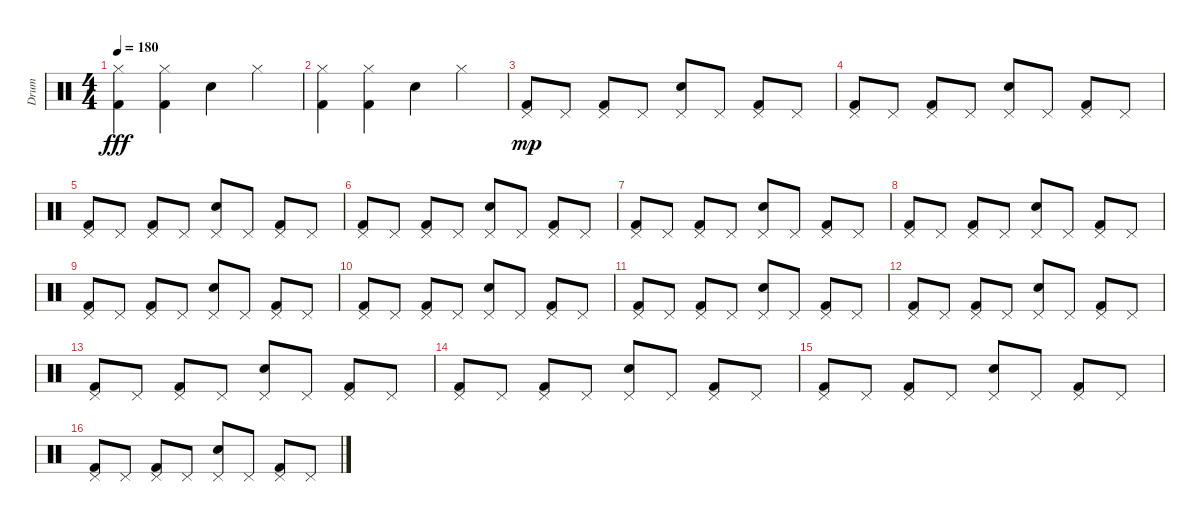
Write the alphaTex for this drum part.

\track ("Drum" "Drum") {instrument percussion}
\staff {score}
\articulation defaults
\ts (4 4)
\tempo 180
\clef neutral
\ks c
("Hi-Hat (closed)" "Kick (hit) 2").4{dy fff} ("Hi-Hat (closed)" "Kick (hit) 2").4 "Snare (hit) 2".4 "Hi-Hat (closed)".4 |
("Hi-Hat (closed)" "Kick (hit) 2").4 ("Hi-Hat (closed)" "Kick (hit) 2").4 "Snare (hit) 2".4 "Hi-Hat (closed)".4 |
("Pedal Hi-Hat (hit)" "Kick (hit) 2").8{dy mp} "Pedal Hi-Hat (hit)".8 ("Pedal Hi-Hat (hit)" "Kick (hit) 2").8 "Pedal Hi-Hat (hit)".8 ("Pedal Hi-Hat (hit)" "Snare (hit) 2").8 "Pedal Hi-Hat (hit)".8 ("Pedal Hi-Hat (hit)" "Kick (hit) 2").8 "Pedal Hi-Hat (hit)".8 |
("Pedal Hi-Hat (hit)" "Kick (hit) 2").8 "Pedal Hi-Hat (hit)".8 ("Pedal Hi-Hat (hit)" "Kick (hit) 2").8 "Pedal Hi-Hat (hit)".8 ("Pedal Hi-Hat (hit)" "Snare (hit) 2").8 "Pedal Hi-Hat (hit)".8 ("Pedal Hi-Hat (hit)" "Kick (hit) 2").8 "Pedal Hi-Hat (hit)".8 |
("Pedal Hi-Hat (hit)" "Kick (hit) 2").8 "Pedal Hi-Hat (hit)".8 ("Pedal Hi-Hat (hit)" "Kick (hit) 2").8 "Pedal Hi-Hat (hit)".8 ("Pedal Hi-Hat (hit)" "Snare (hit) 2").8 "Pedal Hi-Hat (hit)".8 ("Pedal Hi-Hat (hit)" "Kick (hit) 2").8 "Pedal Hi-Hat (hit)".8 |
("Pedal Hi-Hat (hit)" "Kick (hit) 2").8 "Pedal Hi-Hat (hit)".8 ("Pedal Hi-Hat (hit)" "Kick (hit) 2").8 "Pedal Hi-Hat (hit)".8 ("Pedal Hi-Hat (hit)" "Snare (hit) 2").8 "Pedal Hi-Hat (hit)".8 ("Pedal Hi-Hat (hit)" "Kick (hit) 2").8 "Pedal Hi-Hat (hit)".8 |
("Pedal Hi-Hat (hit)" "Kick (hit) 2").8 "Pedal Hi-Hat (hit)".8 ("Pedal Hi-Hat (hit)" "Kick (hit) 2").8 "Pedal Hi-Hat (hit)".8 ("Pedal Hi-Hat (hit)" "Snare (hit) 2").8 "Pedal Hi-Hat (hit)".8 ("Pedal Hi-Hat (hit)" "Kick (hit) 2").8 "Pedal Hi-Hat (hit)".8 |
("Pedal Hi-Hat (hit)" "Kick (hit) 2").8 "Pedal Hi-Hat (hit)".8 ("Pedal Hi-Hat (hit)" "Kick (hit) 2").8 "Pedal Hi-Hat (hit)".8 ("Pedal Hi-Hat (hit)" "Snare (hit) 2").8 "Pedal Hi-Hat (hit)".8 ("Pedal Hi-Hat (hit)" "Kick (hit) 2").8 "Pedal Hi-Hat (hit)".8 |
("Pedal Hi-Hat (hit)" "Kick (hit) 2").8 "Pedal Hi-Hat (hit)".8 ("Pedal Hi-Hat (hit)" "Kick (hit) 2").8 "Pedal Hi-Hat (hit)".8 ("Pedal Hi-Hat (hit)" "Snare (hit) 2").8 "Pedal Hi-Hat (hit)".8 ("Pedal Hi-Hat (hit)" "Kick (hit) 2").8 "Pedal Hi-Hat (hit)".8 |
("Pedal Hi-Hat (hit)" "Kick (hit) 2").8 "Pedal Hi-Hat (hit)".8 ("Pedal Hi-Hat (hit)" "Kick (hit) 2").8 "Pedal Hi-Hat (hit)".8 ("Pedal Hi-Hat (hit)" "Snare (hit) 2").8 "Pedal Hi-Hat (hit)".8 ("Pedal Hi-Hat (hit)" "Kick (hit) 2").8 "Pedal Hi-Hat (hit)".8 |
("Pedal Hi-Hat (hit)" "Kick (hit) 2").8 "Pedal Hi-Hat (hit)".8 ("Pedal Hi-Hat (hit)" "Kick (hit) 2").8 "Pedal Hi-Hat (hit)".8 ("Pedal Hi-Hat (hit)" "Snare (hit) 2").8 "Pedal Hi-Hat (hit)".8 ("Pedal Hi-Hat (hit)" "Kick (hit) 2").8 "Pedal Hi-Hat (hit)".8 |
("Pedal Hi-Hat (hit)" "Kick (hit) 2").8 "Pedal Hi-Hat (hit)".8 ("Pedal Hi-Hat (hit)" "Kick (hit) 2").8 "Pedal Hi-Hat (hit)".8 ("Pedal Hi-Hat (hit)" "Snare (hit) 2").8 "Pedal Hi-Hat (hit)".8 ("Pedal Hi-Hat (hit)" "Kick (hit) 2").8 "Pedal Hi-Hat (hit)".8 |
("Pedal Hi-Hat (hit)" "Kick (hit) 2").8 "Pedal Hi-Hat (hit)".8 ("Pedal Hi-Hat (hit)" "Kick (hit) 2").8 "Pedal Hi-Hat (hit)".8 ("Pedal Hi-Hat (hit)" "Snare (hit) 2").8 "Pedal Hi-Hat (hit)".8 ("Pedal Hi-Hat (hit)" "Kick (hit) 2").8 "Pedal Hi-Hat (hit)".8 |
("Pedal Hi-Hat (hit)" "Kick (hit) 2").8 "Pedal Hi-Hat (hit)".8 ("Pedal Hi-Hat (hit)" "Kick (hit) 2").8 "Pedal Hi-Hat (hit)".8 ("Pedal Hi-Hat (hit)" "Snare (hit) 2").8 "Pedal Hi-Hat (hit)".8 ("Pedal Hi-Hat (hit)" "Kick (hit) 2").8 "Pedal Hi-Hat (hit)".8 |
("Pedal Hi-Hat (hit)" "Kick (hit) 2").8 "Pedal Hi-Hat (hit)".8 ("Pedal Hi-Hat (hit)" "Kick (hit) 2").8 "Pedal Hi-Hat (hit)".8 ("Pedal Hi-Hat (hit)" "Snare (hit) 2").8 "Pedal Hi-Hat (hit)".8 ("Pedal Hi-Hat (hit)" "Kick (hit) 2").8 "Pedal Hi-Hat (hit)".8 |
("Pedal Hi-Hat (hit)" "Kick (hit) 2").8 "Pedal Hi-Hat (hit)".8 ("Pedal Hi-Hat (hit)" "Kick (hit) 2").8 "Pedal Hi-Hat (hit)".8 ("Pedal Hi-Hat (hit)" "Snare (hit) 2").8 "Pedal Hi-Hat (hit)".8 ("Pedal Hi-Hat (hit)" "Kick (hit) 2").8 "Pedal Hi-Hat (hit)".8
